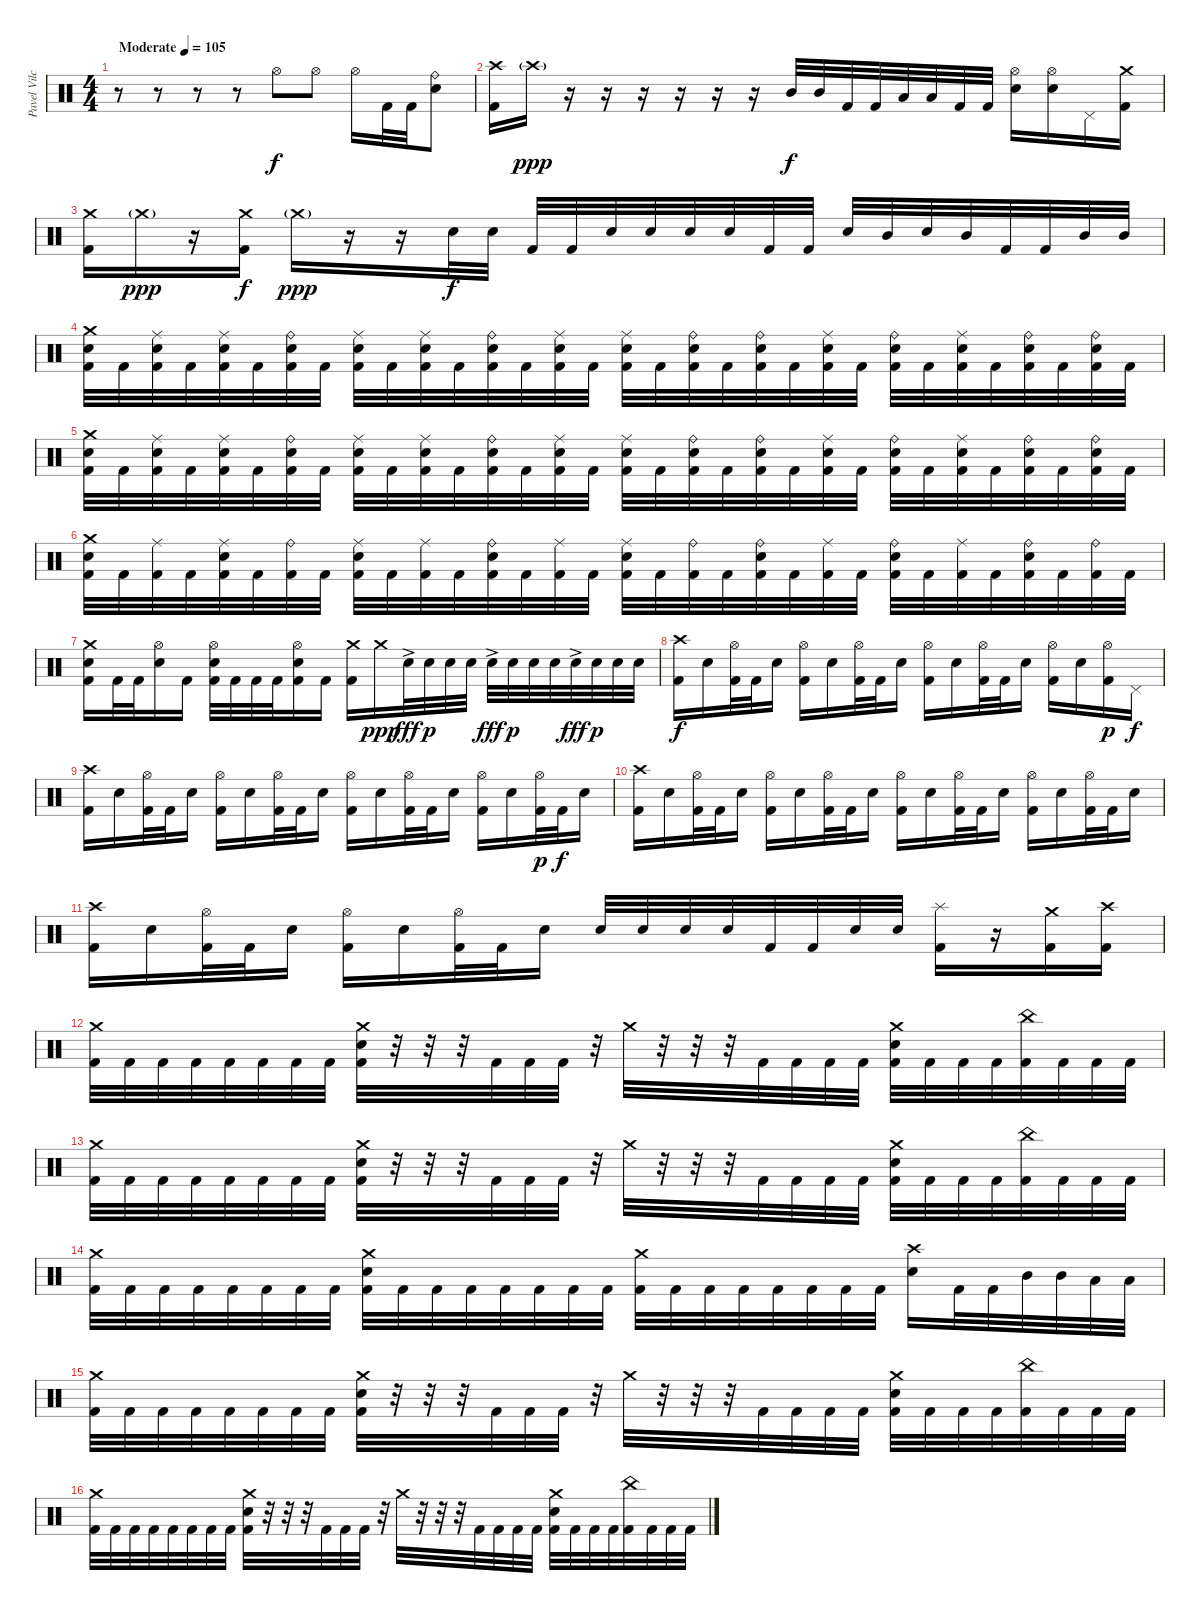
\track ("Pavel Vilchytski" "Pavel Vilc") {instrument percussion}
\staff {score}
\articulation defaults
\ts (4 4)
\tempo (105 "Moderate")
\clef neutral
\ks c
r.8{dy f} r.8 r.8 r.8 "Hi-Hat (open)".8 "Hi-Hat (open)".8 "Hi-Hat (open)".16 "Kick (hit) 2".32 "Kick (hit) 2".32 ("Ride (bell)" "Electric Snare (hit)").8 |
("Crash high (hit)" "Kick (hit) 2").16 "Crash high (hit)"{g}.16{dy ppp} r.16 r.16 r.16 r.16 r.16 r.16 "Mid Tom (hit)".32{dy f} "Mid Tom (hit)".32 "Kick (hit) 2".32 "Kick (hit) 2".32 "Low Tom (hit)".32 "Low Tom (hit)".32 "Kick (hit) 2".32 "Kick (hit) 2".32 ("Hi-Hat (open)" "Electric Snare (hit)").16 ("Hi-Hat (open)" "Electric Snare (hit)").16 "Pedal Hi-Hat (hit)".16 ("Crash medium (hit)" "Kick (hit) 2").16 |
("Crash medium (hit)" "Kick (hit) 2").16 "Crash medium (hit)"{g}.16{dy ppp} r.16 ("Crash medium (hit)" "Kick (hit) 2").16{dy f} "Crash medium (hit)"{g}.16{dy ppp} r.16 r.16 "Electric Snare (hit)".32{dy f} "Electric Snare (hit)".32 "Kick (hit) 2".32 "Kick (hit) 2".32 "Electric Snare (hit)".32 "Electric Snare (hit)".32 "Electric Snare (hit)".32 "Electric Snare (hit)".32 "Kick (hit) 2".32 "Kick (hit) 2".32 "Electric Snare (hit)".32 "Mid Tom (hit)".32 "Electric Snare (hit)".32 "Mid Tom (hit)".32 "Kick (hit) 2".32 "Kick (hit) 2".32 "Mid Tom (hit)".32 "Mid Tom (hit)".32 |
("Crash medium (hit)" "Electric Snare (hit)" "Kick (hit) 2").32 "Kick (hit) 2".32 ("Ride (middle)" "Electric Snare (hit)" "Kick (hit) 2").32 "Kick (hit) 2".32 ("Ride (middle)" "Electric Snare (hit)" "Kick (hit) 2").32 "Kick (hit) 2".32 ("Ride (bell)" "Electric Snare (hit)" "Kick (hit) 2").32 "Kick (hit) 2".32 ("Ride (middle)" "Electric Snare (hit)" "Kick (hit) 2").32 "Kick (hit) 2".32 ("Ride (middle)" "Electric Snare (hit)" "Kick (hit) 2").32 "Kick (hit) 2".32 ("Ride (bell)" "Electric Snare (hit)" "Kick (hit) 2").32 "Kick (hit) 2".32 ("Ride (middle)" "Electric Snare (hit)" "Kick (hit) 2").32 "Kick (hit) 2".32 ("Ride (middle)" "Electric Snare (hit)" "Kick (hit) 2").32 "Kick (hit) 2".32 ("Ride (bell)" "Electric Snare (hit)" "Kick (hit) 2").32 "Kick (hit) 2".32 ("Ride (bell)" "Electric Snare (hit)" "Kick (hit) 2").32 "Kick (hit) 2".32 ("Ride (middle)" "Electric Snare (hit)" "Kick (hit) 2").32 "Kick (hit) 2".32 ("Ride (bell)" "Electric Snare (hit)" "Kick (hit) 2").32 "Kick (hit) 2".32 ("Ride (middle)" "Electric Snare (hit)" "Kick (hit) 2").32 "Kick (hit) 2".32 ("Ride (bell)" "Electric Snare (hit)" "Kick (hit) 2").32 "Kick (hit) 2".32 ("Ride (bell)" "Electric Snare (hit)" "Kick (hit) 2").32 "Kick (hit) 2".32 |
("Crash medium (hit)" "Electric Snare (hit)" "Kick (hit) 2").32 "Kick (hit) 2".32 ("Ride (middle)" "Electric Snare (hit)" "Kick (hit) 2").32 "Kick (hit) 2".32 ("Ride (middle)" "Electric Snare (hit)" "Kick (hit) 2").32 "Kick (hit) 2".32 ("Ride (bell)" "Electric Snare (hit)" "Kick (hit) 2").32 "Kick (hit) 2".32 ("Ride (middle)" "Electric Snare (hit)" "Kick (hit) 2").32 "Kick (hit) 2".32 ("Ride (middle)" "Electric Snare (hit)" "Kick (hit) 2").32 "Kick (hit) 2".32 ("Ride (bell)" "Electric Snare (hit)" "Kick (hit) 2").32 "Kick (hit) 2".32 ("Ride (middle)" "Electric Snare (hit)" "Kick (hit) 2").32 "Kick (hit) 2".32 ("Ride (middle)" "Electric Snare (hit)" "Kick (hit) 2").32 "Kick (hit) 2".32 ("Ride (bell)" "Electric Snare (hit)" "Kick (hit) 2").32 "Kick (hit) 2".32 ("Ride (bell)" "Electric Snare (hit)" "Kick (hit) 2").32 "Kick (hit) 2".32 ("Ride (middle)" "Electric Snare (hit)" "Kick (hit) 2").32 "Kick (hit) 2".32 ("Ride (bell)" "Electric Snare (hit)" "Kick (hit) 2").32 "Kick (hit) 2".32 ("Ride (middle)" "Electric Snare (hit)" "Kick (hit) 2").32 "Kick (hit) 2".32 ("Ride (bell)" "Electric Snare (hit)" "Kick (hit) 2").32 "Kick (hit) 2".32 ("Ride (bell)" "Electric Snare (hit)" "Kick (hit) 2").32 "Kick (hit) 2".32 |
("Crash medium (hit)" "Electric Snare (hit)" "Kick (hit) 2").32 "Kick (hit) 2".32 ("Ride (middle)" "Kick (hit) 2").32 "Kick (hit) 2".32 ("Ride (middle)" "Electric Snare (hit)" "Kick (hit) 2").32 "Kick (hit) 2".32 ("Ride (bell)" "Kick (hit) 2").32 "Kick (hit) 2".32 ("Ride (middle)" "Electric Snare (hit)" "Kick (hit) 2").32 "Kick (hit) 2".32 ("Ride (middle)" "Kick (hit) 2").32 "Kick (hit) 2".32 ("Ride (bell)" "Electric Snare (hit)" "Kick (hit) 2").32 "Kick (hit) 2".32 ("Ride (middle)" "Kick (hit) 2").32 "Kick (hit) 2".32 ("Ride (middle)" "Electric Snare (hit)" "Kick (hit) 2").32 "Kick (hit) 2".32 ("Ride (bell)" "Kick (hit) 2").32 "Kick (hit) 2".32 ("Ride (bell)" "Electric Snare (hit)" "Kick (hit) 2").32 "Kick (hit) 2".32 ("Ride (middle)" "Kick (hit) 2").32 "Kick (hit) 2".32 ("Ride (bell)" "Electric Snare (hit)" "Kick (hit) 2").32 "Kick (hit) 2".32 ("Ride (middle)" "Kick (hit) 2").32 "Kick (hit) 2".32 ("Ride (bell)" "Electric Snare (hit)" "Kick (hit) 2").32 "Kick (hit) 2".32 ("Ride (bell)" "Kick (hit) 2").32 "Kick (hit) 2".32 |
("Crash medium (hit)" "Electric Snare (hit)" "Kick (hit) 2").16 "Kick (hit) 2".32 "Kick (hit) 2".32 ("Hi-Hat (open)" "Electric Snare (hit)").16 "Kick (hit) 2".16 ("Hi-Hat (open)" "Electric Snare (hit)" "Kick (hit) 2").32 "Kick (hit) 2".32 "Kick (hit) 2".32 "Kick (hit) 2".32 ("Hi-Hat (open)" "Electric Snare (hit)" "Kick (hit) 2").16 "Kick (hit) 2".16 ("Crash medium (hit)" "Kick (hit) 2").16 "Crash medium (hit)".16{dy ppp} "Electric Snare (hit)"{ac}.32{dy fff} "Electric Snare (hit)".32{dy p} "Electric Snare (hit)".32 "Electric Snare (hit)".32 "Electric Snare (hit)"{ac}.32{dy fff} "Electric Snare (hit)".32{dy p} "Electric Snare (hit)".32 "Electric Snare (hit)".32 "Electric Snare (hit)"{ac}.32{dy fff} "Electric Snare (hit)".32{dy p} "Electric Snare (hit)".32 "Electric Snare (hit)".32 |
("Crash high (hit)" "Kick (hit) 2").16{dy f} "Electric Snare (hit)".16 ("Hi-Hat (open)" "Kick (hit) 2").32 "Kick (hit) 2".32 "Electric Snare (hit)".16 ("Hi-Hat (open)" "Kick (hit) 2").16 "Electric Snare (hit)".16 ("Hi-Hat (open)" "Kick (hit) 2").32 "Kick (hit) 2".32 "Electric Snare (hit)".16 ("Hi-Hat (open)" "Kick (hit) 2").16 "Electric Snare (hit)".16 ("Hi-Hat (open)" "Kick (hit) 2").32 "Kick (hit) 2".32 "Electric Snare (hit)".16 ("Hi-Hat (open)" "Kick (hit) 2").16 "Electric Snare (hit)".16 ("Hi-Hat (open)" "Kick (hit) 2").16{dy p} "Pedal Hi-Hat (hit)".16{dy f} |
("Crash high (hit)" "Kick (hit) 2").16 "Electric Snare (hit)".16 ("Hi-Hat (open)" "Kick (hit) 2").32 "Kick (hit) 2".32 "Electric Snare (hit)".16 ("Hi-Hat (open)" "Kick (hit) 2").16 "Electric Snare (hit)".16 ("Hi-Hat (open)" "Kick (hit) 2").32 "Kick (hit) 2".32 "Electric Snare (hit)".16 ("Hi-Hat (open)" "Kick (hit) 2").16 "Electric Snare (hit)".16 ("Hi-Hat (open)" "Kick (hit) 2").32 "Kick (hit) 2".32 "Electric Snare (hit)".16 ("Hi-Hat (open)" "Kick (hit) 2").16 "Electric Snare (hit)".16 ("Hi-Hat (open)" "Kick (hit) 2").32{dy p} "Kick (hit) 2".32{dy f} "Electric Snare (hit)".16 |
("Crash high (hit)" "Kick (hit) 2").16 "Electric Snare (hit)".16 ("Hi-Hat (open)" "Kick (hit) 2").32 "Kick (hit) 2".32 "Electric Snare (hit)".16 ("Hi-Hat (open)" "Kick (hit) 2").16 "Electric Snare (hit)".16 ("Hi-Hat (open)" "Kick (hit) 2").32 "Kick (hit) 2".32 "Electric Snare (hit)".16 ("Hi-Hat (open)" "Kick (hit) 2").16 "Electric Snare (hit)".16 ("Hi-Hat (open)" "Kick (hit) 2").32 "Kick (hit) 2".32 "Electric Snare (hit)".16 ("Hi-Hat (open)" "Kick (hit) 2").16 "Electric Snare (hit)".16 ("Hi-Hat (open)" "Kick (hit) 2").32 "Kick (hit) 2".32 "Electric Snare (hit)".16 |
("Crash high (hit)" "Kick (hit) 2").16 "Electric Snare (hit)".16 ("Hi-Hat (open)" "Kick (hit) 2").32 "Kick (hit) 2".32 "Electric Snare (hit)".16 ("Hi-Hat (open)" "Kick (hit) 2").16 "Electric Snare (hit)".16 ("Hi-Hat (open)" "Kick (hit) 2").32 "Kick (hit) 2".32 "Electric Snare (hit)".16 "Electric Snare (hit)".32 "Electric Snare (hit)".32 "Electric Snare (hit)".32 "Electric Snare (hit)".32 "Kick (hit) 2".32 "Kick (hit) 2".32 "Electric Snare (hit)".32 "Electric Snare (hit)".32 ("Splash (hit)" "Kick (hit) 2").16 r.16 ("Crash medium (hit)" "Kick (hit) 2").16 ("Crash high (hit)" "Kick (hit) 2").16 |
("Crash medium (hit)" "Kick (hit) 2").32 "Kick (hit) 2".32 "Kick (hit) 2".32 "Kick (hit) 2".32 "Kick (hit) 2".32 "Kick (hit) 2".32 "Kick (hit) 2".32 "Kick (hit) 2".32 ("Crash medium (hit)" "Electric Snare (hit)" "Kick (hit) 2").32 r.32 r.32 r.32 "Kick (hit) 2".32 "Kick (hit) 2".32 "Kick (hit) 2".32 r.32 "Crash medium (hit)".32 r.32 r.32 r.32 "Kick (hit) 2".32 "Kick (hit) 2".32 "Kick (hit) 2".32 "Kick (hit) 2".32 ("Crash medium (hit)" "Electric Snare (hit)" "Kick (hit) 2").32 "Kick (hit) 2".32 "Kick (hit) 2".32 "Kick (hit) 2".32 ("China (hit)" "Kick (hit) 2").32 "Kick (hit) 2".32 "Kick (hit) 2".32 "Kick (hit) 2".32 |
("Crash medium (hit)" "Kick (hit) 2").32 "Kick (hit) 2".32 "Kick (hit) 2".32 "Kick (hit) 2".32 "Kick (hit) 2".32 "Kick (hit) 2".32 "Kick (hit) 2".32 "Kick (hit) 2".32 ("Crash medium (hit)" "Electric Snare (hit)" "Kick (hit) 2").32 r.32 r.32 r.32 "Kick (hit) 2".32 "Kick (hit) 2".32 "Kick (hit) 2".32 r.32 "Crash medium (hit)".32 r.32 r.32 r.32 "Kick (hit) 2".32 "Kick (hit) 2".32 "Kick (hit) 2".32 "Kick (hit) 2".32 ("Crash medium (hit)" "Electric Snare (hit)" "Kick (hit) 2").32 "Kick (hit) 2".32 "Kick (hit) 2".32 "Kick (hit) 2".32 ("China (hit)" "Kick (hit) 2").32 "Kick (hit) 2".32 "Kick (hit) 2".32 "Kick (hit) 2".32 |
("Crash medium (hit)" "Kick (hit) 2").32 "Kick (hit) 2".32 "Kick (hit) 2".32 "Kick (hit) 2".32 "Kick (hit) 2".32 "Kick (hit) 2".32 "Kick (hit) 2".32 "Kick (hit) 2".32 ("Crash medium (hit)" "Electric Snare (hit)" "Kick (hit) 2").32 "Kick (hit) 2".32 "Kick (hit) 2".32 "Kick (hit) 2".32 "Kick (hit) 2".32 "Kick (hit) 2".32 "Kick (hit) 2".32 "Kick (hit) 2".32 ("Crash medium (hit)" "Kick (hit) 2").32 "Kick (hit) 2".32 "Kick (hit) 2".32 "Kick (hit) 2".32 "Kick (hit) 2".32 "Kick (hit) 2".32 "Kick (hit) 2".32 "Kick (hit) 2".32 ("Electric Snare (hit)" "Crash high (hit)").16 "Kick (hit) 2".32 "Kick (hit) 2".32 "Mid Tom (hit)".32 "Mid Tom (hit)".32 "Low Tom (hit)".32 "Low Tom (hit)".32 |
("Crash medium (hit)" "Kick (hit) 2").32 "Kick (hit) 2".32 "Kick (hit) 2".32 "Kick (hit) 2".32 "Kick (hit) 2".32 "Kick (hit) 2".32 "Kick (hit) 2".32 "Kick (hit) 2".32 ("Crash medium (hit)" "Electric Snare (hit)" "Kick (hit) 2").32 r.32 r.32 r.32 "Kick (hit) 2".32 "Kick (hit) 2".32 "Kick (hit) 2".32 r.32 "Crash medium (hit)".32 r.32 r.32 r.32 "Kick (hit) 2".32 "Kick (hit) 2".32 "Kick (hit) 2".32 "Kick (hit) 2".32 ("Crash medium (hit)" "Electric Snare (hit)" "Kick (hit) 2").32 "Kick (hit) 2".32 "Kick (hit) 2".32 "Kick (hit) 2".32 ("China (hit)" "Kick (hit) 2").32 "Kick (hit) 2".32 "Kick (hit) 2".32 "Kick (hit) 2".32 |
("Crash medium (hit)" "Kick (hit) 2").32 "Kick (hit) 2".32 "Kick (hit) 2".32 "Kick (hit) 2".32 "Kick (hit) 2".32 "Kick (hit) 2".32 "Kick (hit) 2".32 "Kick (hit) 2".32 ("Crash medium (hit)" "Electric Snare (hit)" "Kick (hit) 2").32 r.32 r.32 r.32 "Kick (hit) 2".32 "Kick (hit) 2".32 "Kick (hit) 2".32 r.32 "Crash medium (hit)".32 r.32 r.32 r.32 "Kick (hit) 2".32 "Kick (hit) 2".32 "Kick (hit) 2".32 "Kick (hit) 2".32 ("Crash medium (hit)" "Electric Snare (hit)" "Kick (hit) 2").32 "Kick (hit) 2".32 "Kick (hit) 2".32 "Kick (hit) 2".32 ("China (hit)" "Kick (hit) 2").32 "Kick (hit) 2".32 "Kick (hit) 2".32 "Kick (hit) 2".32
